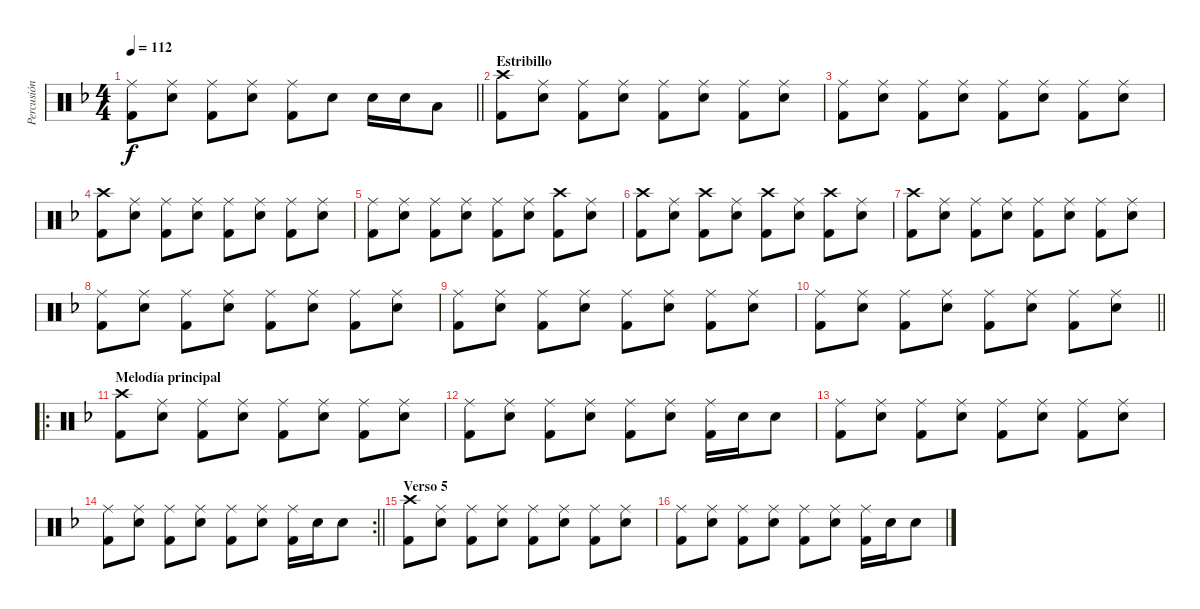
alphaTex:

\track ("Percusión" "Percusión") {instrument percussion}
\staff {score}
\articulation defaults
\ts (4 4)
\tempo 112
\clef neutral
\barLineRight lightlight
\ks dminor
("Ride (middle)" "Kick (hit) 2").8{dy f} ("Ride (middle)" "Snare (hit) 2").8 ("Ride (middle)" "Kick (hit) 2").8 ("Ride (middle)" "Snare (hit) 2").8 ("Ride (middle)" "Kick (hit) 2").8 "Snare (hit) 2".8 "Snare (hit) 2".16 "Snare (hit) 2".16 "Low Tom (hit)".8 |
\section ("" "Estribillo")
("Crash high (hit)" "Kick (hit) 2").8 ("Ride (middle)" "Snare (hit) 2").8 ("Ride (middle)" "Kick (hit) 2").8 ("Ride (middle)" "Snare (hit) 2").8 ("Ride (middle)" "Kick (hit) 2").8 ("Ride (middle)" "Snare (hit) 2").8 ("Ride (middle)" "Kick (hit) 2").8 ("Ride (middle)" "Snare (hit) 2").8 |
("Ride (middle)" "Kick (hit) 2").8 ("Ride (middle)" "Snare (hit) 2").8 ("Ride (middle)" "Kick (hit) 2").8 ("Ride (middle)" "Snare (hit) 2").8 ("Ride (middle)" "Kick (hit) 2").8 ("Ride (middle)" "Snare (hit) 2").8 ("Ride (middle)" "Kick (hit) 2").8 ("Ride (middle)" "Snare (hit) 2").8 |
("Crash high (hit)" "Kick (hit) 2").8 ("Ride (middle)" "Snare (hit) 2").8 ("Ride (middle)" "Kick (hit) 2").8 ("Ride (middle)" "Snare (hit) 2").8 ("Ride (middle)" "Kick (hit) 2").8 ("Ride (middle)" "Snare (hit) 2").8 ("Ride (middle)" "Kick (hit) 2").8 ("Ride (middle)" "Snare (hit) 2").8 |
("Ride (middle)" "Kick (hit) 2").8 ("Ride (middle)" "Snare (hit) 2").8 ("Ride (middle)" "Kick (hit) 2").8 ("Ride (middle)" "Snare (hit) 2").8 ("Ride (middle)" "Kick (hit) 2").8 ("Ride (middle)" "Snare (hit) 2").8 ("Crash high (hit)" "Kick (hit) 2").8 ("Ride (middle)" "Snare (hit) 2").8 |
("Crash high (hit)" "Kick (hit) 2").8 ("Ride (middle)" "Snare (hit) 2").8 ("Crash high (hit)" "Kick (hit) 2").8 ("Ride (middle)" "Snare (hit) 2").8 ("Crash high (hit)" "Kick (hit) 2").8 ("Ride (middle)" "Snare (hit) 2").8 ("Crash high (hit)" "Kick (hit) 2").8 ("Ride (middle)" "Snare (hit) 2").8 |
("Crash high (hit)" "Kick (hit) 2").8 ("Ride (middle)" "Snare (hit) 2").8 ("Ride (middle)" "Kick (hit) 2").8 ("Ride (middle)" "Snare (hit) 2").8 ("Ride (middle)" "Kick (hit) 2").8 ("Ride (middle)" "Snare (hit) 2").8 ("Ride (middle)" "Kick (hit) 2").8 ("Ride (middle)" "Snare (hit) 2").8 |
("Ride (middle)" "Kick (hit) 2").8 ("Ride (middle)" "Snare (hit) 2").8 ("Ride (middle)" "Kick (hit) 2").8 ("Ride (middle)" "Snare (hit) 2").8 ("Ride (middle)" "Kick (hit) 2").8 ("Ride (middle)" "Snare (hit) 2").8 ("Ride (middle)" "Kick (hit) 2").8 ("Ride (middle)" "Snare (hit) 2").8 |
("Ride (middle)" "Kick (hit) 2").8 ("Ride (middle)" "Snare (hit) 2").8 ("Ride (middle)" "Kick (hit) 2").8 ("Ride (middle)" "Snare (hit) 2").8 ("Ride (middle)" "Kick (hit) 2").8 ("Ride (middle)" "Snare (hit) 2").8 ("Ride (middle)" "Kick (hit) 2").8 ("Ride (middle)" "Snare (hit) 2").8 |
\barLineRight lightlight
("Ride (middle)" "Kick (hit) 2").8 ("Ride (middle)" "Snare (hit) 2").8 ("Ride (middle)" "Kick (hit) 2").8 ("Ride (middle)" "Snare (hit) 2").8 ("Ride (middle)" "Kick (hit) 2").8 ("Ride (middle)" "Snare (hit) 2").8 ("Ride (middle)" "Kick (hit) 2").8 ("Ride (middle)" "Snare (hit) 2").8 |
\ro
\section ("" "Melodía principal")
("Crash high (hit)" "Kick (hit) 2").8 ("Ride (middle)" "Snare (hit) 2").8 ("Ride (middle)" "Kick (hit) 2").8 ("Ride (middle)" "Snare (hit) 2").8 ("Ride (middle)" "Kick (hit) 2").8 ("Ride (middle)" "Snare (hit) 2").8 ("Ride (middle)" "Kick (hit) 2").8 ("Ride (middle)" "Snare (hit) 2").8 |
("Ride (middle)" "Kick (hit) 2").8 ("Ride (middle)" "Snare (hit) 2").8 ("Ride (middle)" "Kick (hit) 2").8 ("Ride (middle)" "Snare (hit) 2").8 ("Ride (middle)" "Kick (hit) 2").8 ("Ride (middle)" "Snare (hit) 2").8 ("Ride (middle)" "Kick (hit) 2").16 "Snare (hit) 2".16 "Snare (hit) 2".8 |
("Ride (middle)" "Kick (hit) 2").8 ("Ride (middle)" "Snare (hit) 2").8 ("Ride (middle)" "Kick (hit) 2").8 ("Ride (middle)" "Snare (hit) 2").8 ("Ride (middle)" "Kick (hit) 2").8 ("Ride (middle)" "Snare (hit) 2").8 ("Ride (middle)" "Kick (hit) 2").8 ("Ride (middle)" "Snare (hit) 2").8 |
\rc 2
\barLineRight lightlight
("Ride (middle)" "Kick (hit) 2").8 ("Ride (middle)" "Snare (hit) 2").8 ("Ride (middle)" "Kick (hit) 2").8 ("Ride (middle)" "Snare (hit) 2").8 ("Ride (middle)" "Kick (hit) 2").8 ("Ride (middle)" "Snare (hit) 2").8 ("Ride (middle)" "Kick (hit) 2").16 "Snare (hit) 2".16 "Snare (hit) 2".8 |
\section ("" "Verso 5")
("Crash high (hit)" "Kick (hit) 2").8 ("Ride (middle)" "Snare (hit) 2").8 ("Ride (middle)" "Kick (hit) 2").8 ("Ride (middle)" "Snare (hit) 2").8 ("Ride (middle)" "Kick (hit) 2").8 ("Ride (middle)" "Snare (hit) 2").8 ("Ride (middle)" "Kick (hit) 2").8 ("Ride (middle)" "Snare (hit) 2").8 |
("Ride (middle)" "Kick (hit) 2").8 ("Ride (middle)" "Snare (hit) 2").8 ("Ride (middle)" "Kick (hit) 2").8 ("Ride (middle)" "Snare (hit) 2").8 ("Ride (middle)" "Kick (hit) 2").8 ("Ride (middle)" "Snare (hit) 2").8 ("Ride (middle)" "Kick (hit) 2").16 "Snare (hit) 2".16 "Snare (hit) 2".8
